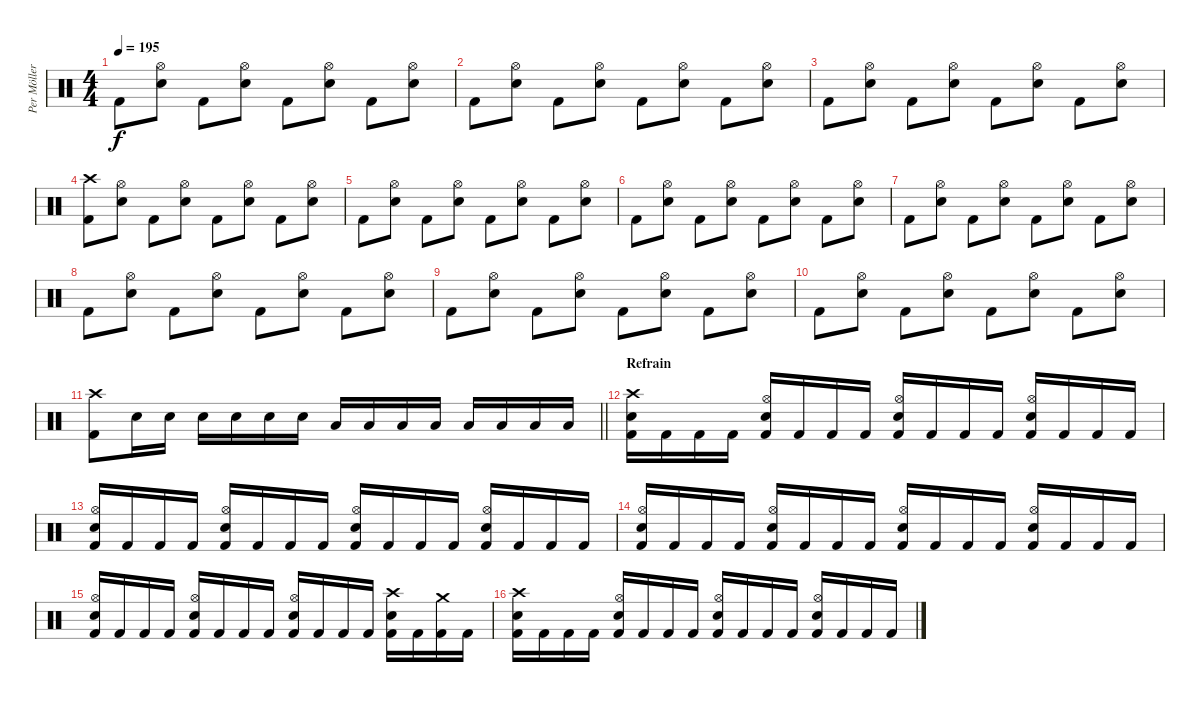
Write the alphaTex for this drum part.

\track ("Per Möller Jensen" "Per Möller") {instrument percussion}
\staff {score}
\articulation defaults
\ts (4 4)
\tempo 195
\clef neutral
\ks c "Kick (hit) 2".8{dy f}
("Hi-Hat (open)" "Snare (hit) 2").8 "Kick (hit) 2".8 ("Hi-Hat (open)" "Snare (hit) 2").8 "Kick (hit) 2".8 ("Hi-Hat (open)" "Snare (hit) 2").8 "Kick (hit) 2".8 ("Hi-Hat (open)" "Snare (hit) 2").8 |
"Kick (hit) 2".8 ("Hi-Hat (open)" "Snare (hit) 2").8 "Kick (hit) 2".8 ("Hi-Hat (open)" "Snare (hit) 2").8 "Kick (hit) 2".8 ("Hi-Hat (open)" "Snare (hit) 2").8 "Kick (hit) 2".8 ("Hi-Hat (open)" "Snare (hit) 2").8 |
"Kick (hit) 2".8 ("Hi-Hat (open)" "Snare (hit) 2").8 "Kick (hit) 2".8 ("Hi-Hat (open)" "Snare (hit) 2").8 "Kick (hit) 2".8 ("Hi-Hat (open)" "Snare (hit) 2").8 "Kick (hit) 2".8 ("Hi-Hat (open)" "Snare (hit) 2").8 |
("Crash high (hit)" "Kick (hit) 2").8 ("Hi-Hat (open)" "Snare (hit) 2").8 "Kick (hit) 2".8 ("Hi-Hat (open)" "Snare (hit) 2").8 "Kick (hit) 2".8 ("Hi-Hat (open)" "Snare (hit) 2").8 "Kick (hit) 2".8 ("Hi-Hat (open)" "Snare (hit) 2").8 |
"Kick (hit) 2".8 ("Hi-Hat (open)" "Snare (hit) 2").8 "Kick (hit) 2".8 ("Hi-Hat (open)" "Snare (hit) 2").8 "Kick (hit) 2".8 ("Hi-Hat (open)" "Snare (hit) 2").8 "Kick (hit) 2".8 ("Hi-Hat (open)" "Snare (hit) 2").8 |
"Kick (hit) 2".8 ("Hi-Hat (open)" "Snare (hit) 2").8 "Kick (hit) 2".8 ("Hi-Hat (open)" "Snare (hit) 2").8 "Kick (hit) 2".8 ("Hi-Hat (open)" "Snare (hit) 2").8 "Kick (hit) 2".8 ("Hi-Hat (open)" "Snare (hit) 2").8 |
"Kick (hit) 2".8 ("Hi-Hat (open)" "Snare (hit) 2").8 "Kick (hit) 2".8 ("Hi-Hat (open)" "Snare (hit) 2").8 "Kick (hit) 2".8 ("Hi-Hat (open)" "Snare (hit) 2").8 "Kick (hit) 2".8 ("Hi-Hat (open)" "Snare (hit) 2").8 |
"Kick (hit) 2".8 ("Hi-Hat (open)" "Snare (hit) 2").8 "Kick (hit) 2".8 ("Hi-Hat (open)" "Snare (hit) 2").8 "Kick (hit) 2".8 ("Hi-Hat (open)" "Snare (hit) 2").8 "Kick (hit) 2".8 ("Hi-Hat (open)" "Snare (hit) 2").8 |
"Kick (hit) 2".8 ("Hi-Hat (open)" "Snare (hit) 2").8 "Kick (hit) 2".8 ("Hi-Hat (open)" "Snare (hit) 2").8 "Kick (hit) 2".8 ("Hi-Hat (open)" "Snare (hit) 2").8 "Kick (hit) 2".8 ("Hi-Hat (open)" "Snare (hit) 2").8 |
"Kick (hit) 2".8 ("Hi-Hat (open)" "Snare (hit) 2").8 "Kick (hit) 2".8 ("Hi-Hat (open)" "Snare (hit) 2").8 "Kick (hit) 2".8 ("Hi-Hat (open)" "Snare (hit) 2").8 "Kick (hit) 2".8 ("Hi-Hat (open)" "Snare (hit) 2").8 |
\barLineRight lightlight
("Crash high (hit)" "Kick (hit) 2").8 "Snare (hit) 2".16 "Snare (hit) 2".16 "Snare (hit) 2".16 "Snare (hit) 2".16 "Snare (hit) 2".16 "Snare (hit) 2".16 "Low Tom (hit)".16 "Low Tom (hit)".16 "Low Tom (hit)".16 "Low Tom (hit)".16 "Low Floor Tom (hit)".16 "Low Floor Tom (hit)".16 "Low Floor Tom (hit)".16 "Low Floor Tom (hit)".16 |
\section ("" "Refrain")
("Crash high (hit)" "Snare (hit) 2" "Kick (hit) 2").16 "Kick (hit) 2".16 "Kick (hit) 2".16 "Kick (hit) 2".16 ("Hi-Hat (open)" "Snare (hit) 2" "Kick (hit) 2").16 "Kick (hit) 2".16 "Kick (hit) 2".16 "Kick (hit) 2".16 ("Hi-Hat (open)" "Snare (hit) 2" "Kick (hit) 2").16 "Kick (hit) 2".16 "Kick (hit) 2".16 "Kick (hit) 2".16 ("Hi-Hat (open)" "Snare (hit) 2" "Kick (hit) 2").16 "Kick (hit) 2".16 "Kick (hit) 2".16 "Kick (hit) 2".16 |
("Hi-Hat (open)" "Snare (hit) 2" "Kick (hit) 2").16 "Kick (hit) 2".16 "Kick (hit) 2".16 "Kick (hit) 2".16 ("Hi-Hat (open)" "Snare (hit) 2" "Kick (hit) 2").16 "Kick (hit) 2".16 "Kick (hit) 2".16 "Kick (hit) 2".16 ("Hi-Hat (open)" "Snare (hit) 2" "Kick (hit) 2").16 "Kick (hit) 2".16 "Kick (hit) 2".16 "Kick (hit) 2".16 ("Hi-Hat (open)" "Snare (hit) 2" "Kick (hit) 2").16 "Kick (hit) 2".16 "Kick (hit) 2".16 "Kick (hit) 2".16 |
("Hi-Hat (open)" "Snare (hit) 2" "Kick (hit) 2").16 "Kick (hit) 2".16 "Kick (hit) 2".16 "Kick (hit) 2".16 ("Hi-Hat (open)" "Snare (hit) 2" "Kick (hit) 2").16 "Kick (hit) 2".16 "Kick (hit) 2".16 "Kick (hit) 2".16 ("Hi-Hat (open)" "Snare (hit) 2" "Kick (hit) 2").16 "Kick (hit) 2".16 "Kick (hit) 2".16 "Kick (hit) 2".16 ("Hi-Hat (open)" "Snare (hit) 2" "Kick (hit) 2").16 "Kick (hit) 2".16 "Kick (hit) 2".16 "Kick (hit) 2".16 |
("Hi-Hat (open)" "Snare (hit) 2" "Kick (hit) 2").16 "Kick (hit) 2".16 "Kick (hit) 2".16 "Kick (hit) 2".16 ("Hi-Hat (open)" "Snare (hit) 2" "Kick (hit) 2").16 "Kick (hit) 2".16 "Kick (hit) 2".16 "Kick (hit) 2".16 ("Hi-Hat (open)" "Snare (hit) 2" "Kick (hit) 2").16 "Kick (hit) 2".16 "Kick (hit) 2".16 "Kick (hit) 2".16 ("Crash high (hit)" "Snare (hit) 2" "Kick (hit) 2").16 "Kick (hit) 2".16 ("Crash medium (hit)" "Kick (hit) 2").16 "Kick (hit) 2".16 |
("Crash high (hit)" "Snare (hit) 2" "Kick (hit) 2").16 "Kick (hit) 2".16 "Kick (hit) 2".16 "Kick (hit) 2".16 ("Hi-Hat (open)" "Snare (hit) 2" "Kick (hit) 2").16 "Kick (hit) 2".16 "Kick (hit) 2".16 "Kick (hit) 2".16 ("Hi-Hat (open)" "Snare (hit) 2" "Kick (hit) 2").16 "Kick (hit) 2".16 "Kick (hit) 2".16 "Kick (hit) 2".16 ("Hi-Hat (open)" "Snare (hit) 2" "Kick (hit) 2").16 "Kick (hit) 2".16 "Kick (hit) 2".16 "Kick (hit) 2".16
